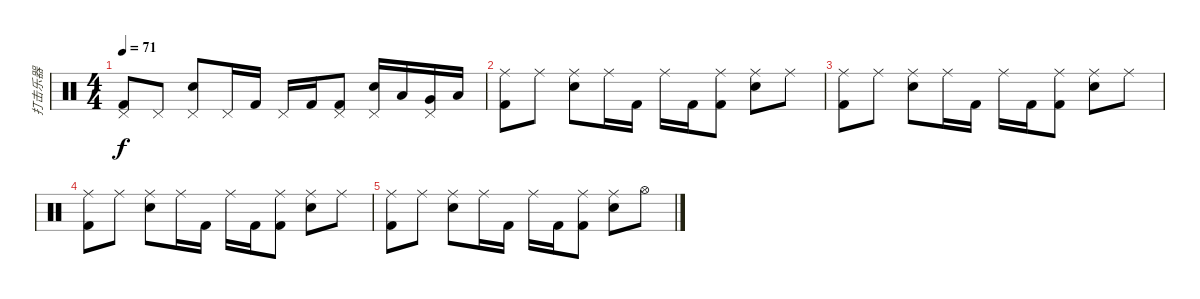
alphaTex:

\track ("打击乐器" "打击乐器") {instrument percussion}
\staff {score}
\articulation defaults
\ts (4 4)
\tempo 71
\clef neutral
\ks c
("Pedal Hi-Hat (hit)" "Kick (hit) 2").8{dy f} "Pedal Hi-Hat (hit)".8 ("Pedal Hi-Hat (hit)" "Electric Snare (hit)").8 "Pedal Hi-Hat (hit)".16 "Kick (hit) 2".16 "Pedal Hi-Hat (hit)".16 "Kick (hit) 2".16 ("Pedal Hi-Hat (hit)" "Kick (hit) 2").8 ("Pedal Hi-Hat (hit)" "Electric Snare (hit)").16 "Low Tom (hit)".16 ("Pedal Hi-Hat (hit)" "Very Low Tom (hit)").16 "Low Floor Tom (hit)".16 |
("Ride (middle)" "Kick (hit) 2").8 "Ride (middle)".8 ("Ride (middle)" "Electric Snare (hit)").8 "Ride (middle)".16 "Kick (hit) 2".16 "Ride (middle)".16 "Kick (hit) 2".16 ("Ride (middle)" "Kick (hit) 2").8 ("Ride (middle)" "Electric Snare (hit)").8 "Ride (middle)".8 |
("Ride (middle)" "Kick (hit) 2").8 "Ride (middle)".8 ("Ride (middle)" "Electric Snare (hit)").8 "Ride (middle)".16 "Kick (hit) 2".16 "Ride (middle)".16 "Kick (hit) 2".16 ("Ride (middle)" "Kick (hit) 2").8 ("Ride (middle)" "Electric Snare (hit)").8 "Ride (middle)".8 |
("Ride (middle)" "Kick (hit) 2").8 "Ride (middle)".8 ("Ride (middle)" "Electric Snare (hit)").8 "Ride (middle)".16 "Kick (hit) 2".16 "Ride (middle)".16 "Kick (hit) 2".16 ("Ride (middle)" "Kick (hit) 2").8 ("Ride (middle)" "Electric Snare (hit)").8 "Ride (middle)".8 |
("Ride (middle)" "Kick (hit) 2").8 "Ride (middle)".8 ("Ride (middle)" "Electric Snare (hit)").8 "Ride (middle)".16 "Kick (hit) 2".16 "Ride (middle)".16 "Kick (hit) 2".16 ("Ride (middle)" "Kick (hit) 2").8 ("Ride (middle)" "Electric Snare (hit)").8 "Hi-Hat (open)".8
